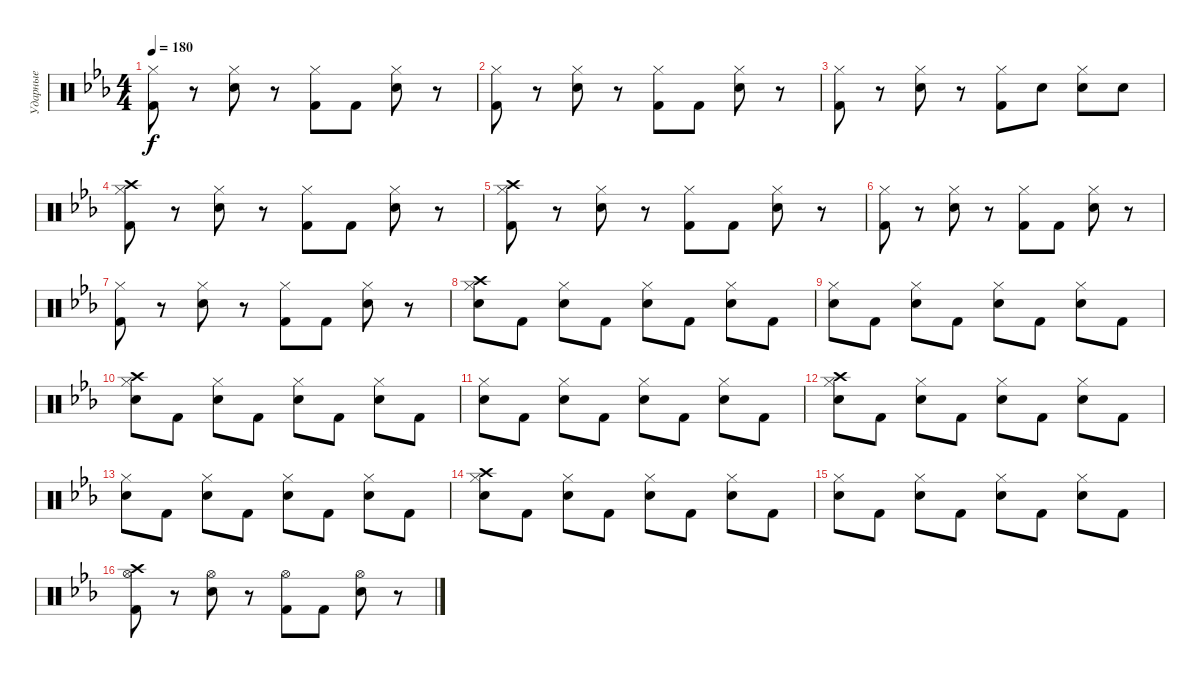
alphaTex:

\track ("Ударные" "Ударные") {instrument percussion}
\staff {score}
\articulation defaults
\ts (4 4)
\tempo 180
\clef neutral
\ks eb
("Hi-Hat (closed)" "Kick (hit) 2").8{dy f} r.8 ("Hi-Hat (closed)" "Electric Snare (hit)").8 r.8 ("Hi-Hat (closed)" "Kick (hit) 2").8 "Kick (hit) 2".8 ("Hi-Hat (closed)" "Electric Snare (hit)").8 r.8 |
("Hi-Hat (closed)" "Kick (hit) 2").8 r.8 ("Hi-Hat (closed)" "Electric Snare (hit)").8 r.8 ("Hi-Hat (closed)" "Kick (hit) 2").8 "Kick (hit) 2".8 ("Hi-Hat (closed)" "Electric Snare (hit)").8 r.8 |
("Hi-Hat (closed)" "Kick (hit) 2").8 r.8 ("Hi-Hat (closed)" "Electric Snare (hit)").8 r.8 ("Hi-Hat (closed)" "Kick (hit) 2").8 "Electric Snare (hit)".8 ("Hi-Hat (closed)" "Electric Snare (hit)").8 "Electric Snare (hit)".8 |
("Hi-Hat (closed)" "Kick (hit) 2" "Crash high (hit)").8 r.8 ("Hi-Hat (closed)" "Electric Snare (hit)").8 r.8 ("Hi-Hat (closed)" "Kick (hit) 2").8 "Kick (hit) 2".8 ("Hi-Hat (closed)" "Electric Snare (hit)").8 r.8 |
("Hi-Hat (closed)" "Kick (hit) 2" "Crash high (hit)").8 r.8 ("Hi-Hat (closed)" "Electric Snare (hit)").8 r.8 ("Hi-Hat (closed)" "Kick (hit) 2").8 "Kick (hit) 2".8 ("Hi-Hat (closed)" "Electric Snare (hit)").8 r.8 |
("Hi-Hat (closed)" "Kick (hit) 2").8 r.8 ("Hi-Hat (closed)" "Electric Snare (hit)").8 r.8 ("Hi-Hat (closed)" "Kick (hit) 2").8 "Kick (hit) 2".8 ("Hi-Hat (closed)" "Electric Snare (hit)").8 r.8 |
("Hi-Hat (closed)" "Kick (hit) 2").8 r.8 ("Hi-Hat (closed)" "Electric Snare (hit)").8 r.8 ("Hi-Hat (closed)" "Kick (hit) 2").8 "Kick (hit) 2".8 ("Hi-Hat (closed)" "Electric Snare (hit)").8 r.8 |
("Hi-Hat (closed)" "Electric Snare (hit)" "Crash high (hit)").8 "Kick (hit) 2".8 ("Hi-Hat (closed)" "Electric Snare (hit)").8 "Kick (hit) 2".8 ("Hi-Hat (closed)" "Electric Snare (hit)").8 "Kick (hit) 2".8 ("Hi-Hat (closed)" "Electric Snare (hit)").8 "Kick (hit) 2".8 |
("Hi-Hat (closed)" "Electric Snare (hit)").8 "Kick (hit) 2".8 ("Hi-Hat (closed)" "Electric Snare (hit)").8 "Kick (hit) 2".8 ("Hi-Hat (closed)" "Electric Snare (hit)").8 "Kick (hit) 2".8 ("Hi-Hat (closed)" "Electric Snare (hit)").8 "Kick (hit) 2".8 |
("Hi-Hat (closed)" "Electric Snare (hit)" "Crash high (hit)").8 "Kick (hit) 2".8 ("Hi-Hat (closed)" "Electric Snare (hit)").8 "Kick (hit) 2".8 ("Hi-Hat (closed)" "Electric Snare (hit)").8 "Kick (hit) 2".8 ("Hi-Hat (closed)" "Electric Snare (hit)").8 "Kick (hit) 2".8 |
("Hi-Hat (closed)" "Electric Snare (hit)").8 "Kick (hit) 2".8 ("Hi-Hat (closed)" "Electric Snare (hit)").8 "Kick (hit) 2".8 ("Hi-Hat (closed)" "Electric Snare (hit)").8 "Kick (hit) 2".8 ("Hi-Hat (closed)" "Electric Snare (hit)").8 "Kick (hit) 2".8 |
("Hi-Hat (closed)" "Electric Snare (hit)" "Crash high (hit)").8 "Kick (hit) 2".8 ("Hi-Hat (closed)" "Electric Snare (hit)").8 "Kick (hit) 2".8 ("Hi-Hat (closed)" "Electric Snare (hit)").8 "Kick (hit) 2".8 ("Hi-Hat (closed)" "Electric Snare (hit)").8 "Kick (hit) 2".8 |
("Hi-Hat (closed)" "Electric Snare (hit)").8 "Kick (hit) 2".8 ("Hi-Hat (closed)" "Electric Snare (hit)").8 "Kick (hit) 2".8 ("Hi-Hat (closed)" "Electric Snare (hit)").8 "Kick (hit) 2".8 ("Hi-Hat (closed)" "Electric Snare (hit)").8 "Kick (hit) 2".8 |
("Hi-Hat (closed)" "Electric Snare (hit)" "Crash high (hit)").8 "Kick (hit) 2".8 ("Hi-Hat (closed)" "Electric Snare (hit)").8 "Kick (hit) 2".8 ("Hi-Hat (closed)" "Electric Snare (hit)").8 "Kick (hit) 2".8 ("Hi-Hat (closed)" "Electric Snare (hit)").8 "Kick (hit) 2".8 |
("Hi-Hat (closed)" "Electric Snare (hit)").8 "Kick (hit) 2".8 ("Hi-Hat (closed)" "Electric Snare (hit)").8 "Kick (hit) 2".8 ("Hi-Hat (closed)" "Electric Snare (hit)").8 "Kick (hit) 2".8 ("Hi-Hat (closed)" "Electric Snare (hit)").8 "Kick (hit) 2".8 |
("Hi-Hat (open)" "Kick (hit) 2" "Crash high (hit)").8 r.8 ("Hi-Hat (open)" "Electric Snare (hit)").8 r.8 ("Hi-Hat (open)" "Kick (hit) 2").8 "Kick (hit) 2".8 ("Hi-Hat (open)" "Electric Snare (hit)").8 r.8
